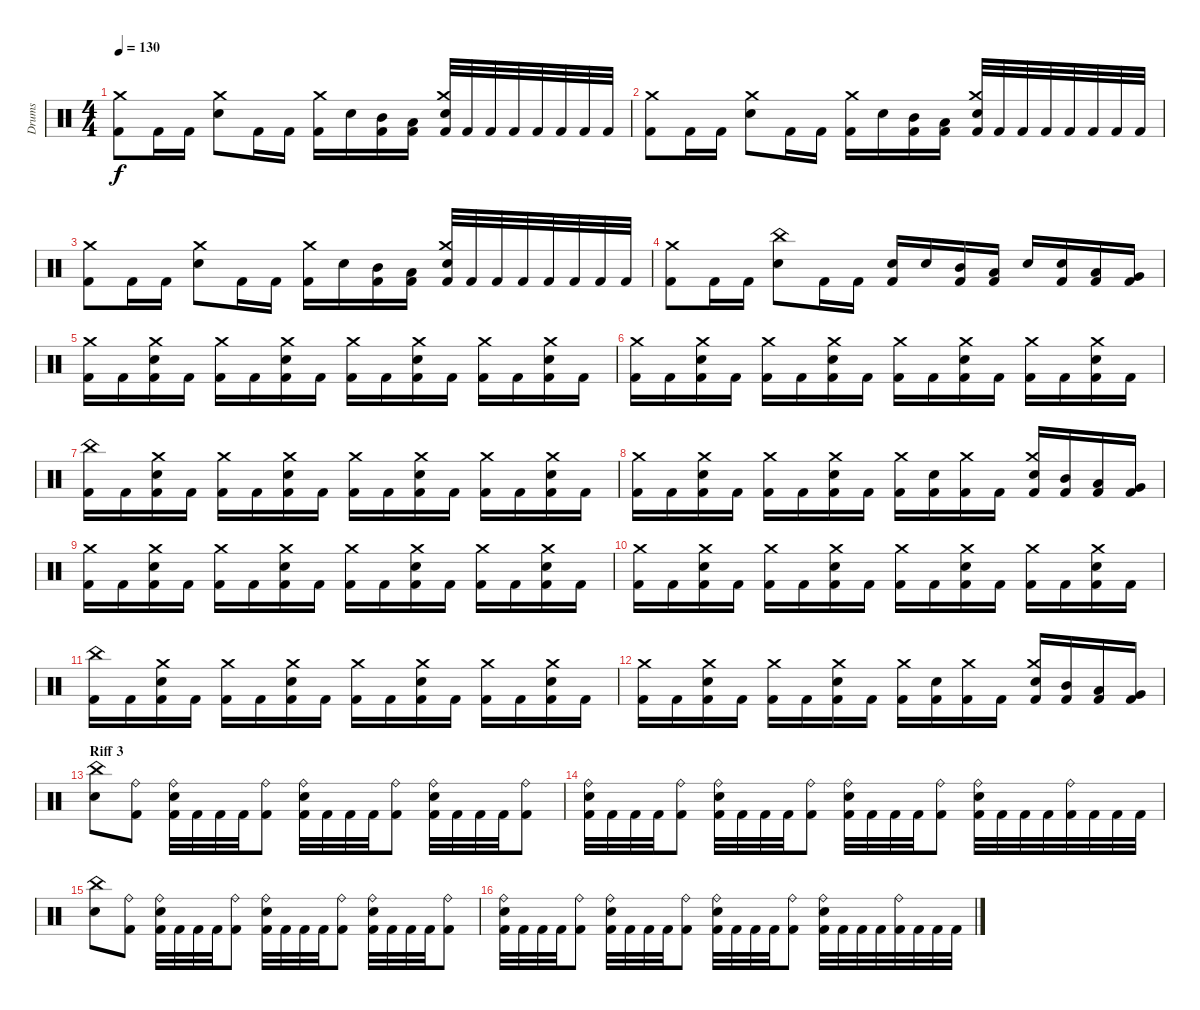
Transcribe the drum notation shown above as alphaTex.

\track ("Drums" "Drums") {instrument percussion}
\staff {score}
\articulation defaults
\ts (4 4)
\tempo 130
\clef neutral
\ks c
("Kick (hit) 2" "Crash medium (hit)").8{dy f} "Kick (hit) 2".16 "Kick (hit) 2".16 ("Snare (hit) 2" "Crash medium (hit)").8 "Kick (hit) 2".16 "Kick (hit) 2".16 ("Kick (hit) 2" "Crash medium (hit)").16 "Snare (hit) 2".16 ("Kick (hit) 2" "Mid Tom (hit)").16 ("Kick (hit) 2" "Low Tom (hit)").16 ("Kick (hit) 2" "Snare (hit) 2" "Crash medium (hit)").32 "Kick (hit) 2".32 "Kick (hit) 2".32 "Kick (hit) 2".32 "Kick (hit) 2".32 "Kick (hit) 2".32 "Kick (hit) 2".32 "Kick (hit) 2".32 |
("Kick (hit) 2" "Crash medium (hit)").8 "Kick (hit) 2".16 "Kick (hit) 2".16 ("Snare (hit) 2" "Crash medium (hit)").8 "Kick (hit) 2".16 "Kick (hit) 2".16 ("Kick (hit) 2" "Crash medium (hit)").16 "Snare (hit) 2".16 ("Kick (hit) 2" "Mid Tom (hit)").16 ("Kick (hit) 2" "Low Tom (hit)").16 ("Kick (hit) 2" "Snare (hit) 2" "Crash medium (hit)").32 "Kick (hit) 2".32 "Kick (hit) 2".32 "Kick (hit) 2".32 "Kick (hit) 2".32 "Kick (hit) 2".32 "Kick (hit) 2".32 "Kick (hit) 2".32 |
("Kick (hit) 2" "Crash medium (hit)").8 "Kick (hit) 2".16 "Kick (hit) 2".16 ("Snare (hit) 2" "Crash medium (hit)").8 "Kick (hit) 2".16 "Kick (hit) 2".16 ("Kick (hit) 2" "Crash medium (hit)").16 "Snare (hit) 2".16 ("Kick (hit) 2" "Mid Tom (hit)").16 ("Kick (hit) 2" "Low Tom (hit)").16 ("Kick (hit) 2" "Snare (hit) 2" "Crash medium (hit)").32 "Kick (hit) 2".32 "Kick (hit) 2".32 "Kick (hit) 2".32 "Kick (hit) 2".32 "Kick (hit) 2".32 "Kick (hit) 2".32 "Kick (hit) 2".32 |
("Kick (hit) 2" "Crash medium (hit)").8 "Kick (hit) 2".16 "Kick (hit) 2".16 ("Snare (hit) 2" "China (hit)").8 "Kick (hit) 2".16 "Kick (hit) 2".16 ("Kick (hit) 2" "Snare (hit) 2").16 "Snare (hit) 2".16 ("Kick (hit) 2" "Mid Tom (hit)").16 ("Kick (hit) 2" "Low Tom (hit)").16 "Snare (hit) 2".16 ("Kick (hit) 2" "Snare (hit) 2").16 ("Kick (hit) 2" "Low Tom (hit)").16 ("Kick (hit) 2" "Very Low Tom (hit)").16 |
("Kick (hit) 2" "Crash medium (hit)").16 "Kick (hit) 2".16 ("Kick (hit) 2" "Snare (hit) 2" "Crash medium (hit)").16 "Kick (hit) 2".16 ("Kick (hit) 2" "Crash medium (hit)").16 "Kick (hit) 2".16 ("Kick (hit) 2" "Snare (hit) 2" "Crash medium (hit)").16 "Kick (hit) 2".16 ("Kick (hit) 2" "Crash medium (hit)").16 "Kick (hit) 2".16 ("Kick (hit) 2" "Snare (hit) 2" "Crash medium (hit)").16 "Kick (hit) 2".16 ("Kick (hit) 2" "Crash medium (hit)").16 "Kick (hit) 2".16 ("Kick (hit) 2" "Snare (hit) 2" "Crash medium (hit)").16 "Kick (hit) 2".16 |
("Kick (hit) 2" "Crash medium (hit)").16 "Kick (hit) 2".16 ("Kick (hit) 2" "Snare (hit) 2" "Crash medium (hit)").16 "Kick (hit) 2".16 ("Kick (hit) 2" "Crash medium (hit)").16 "Kick (hit) 2".16 ("Kick (hit) 2" "Snare (hit) 2" "Crash medium (hit)").16 "Kick (hit) 2".16 ("Kick (hit) 2" "Crash medium (hit)").16 "Kick (hit) 2".16 ("Kick (hit) 2" "Snare (hit) 2" "Crash medium (hit)").16 "Kick (hit) 2".16 ("Kick (hit) 2" "Crash medium (hit)").16 "Kick (hit) 2".16 ("Kick (hit) 2" "Snare (hit) 2" "Crash medium (hit)").16 "Kick (hit) 2".16 |
("Kick (hit) 2" "China (hit)").16 "Kick (hit) 2".16 ("Kick (hit) 2" "Snare (hit) 2" "Crash medium (hit)").16 "Kick (hit) 2".16 ("Kick (hit) 2" "Crash medium (hit)").16 "Kick (hit) 2".16 ("Kick (hit) 2" "Snare (hit) 2" "Crash medium (hit)").16 "Kick (hit) 2".16 ("Kick (hit) 2" "Crash medium (hit)").16 "Kick (hit) 2".16 ("Kick (hit) 2" "Snare (hit) 2" "Crash medium (hit)").16 "Kick (hit) 2".16 ("Kick (hit) 2" "Crash medium (hit)").16 "Kick (hit) 2".16 ("Kick (hit) 2" "Snare (hit) 2" "Crash medium (hit)").16 "Kick (hit) 2".16 |
("Kick (hit) 2" "Crash medium (hit)").16 "Kick (hit) 2".16 ("Kick (hit) 2" "Snare (hit) 2" "Crash medium (hit)").16 "Kick (hit) 2".16 ("Kick (hit) 2" "Crash medium (hit)").16 "Kick (hit) 2".16 ("Kick (hit) 2" "Snare (hit) 2" "Crash medium (hit)").16 "Kick (hit) 2".16 ("Kick (hit) 2" "Crash medium (hit)").16 ("Kick (hit) 2" "Snare (hit) 2").16 ("Kick (hit) 2" "Crash medium (hit)").16 "Kick (hit) 2".16 ("Kick (hit) 2" "Snare (hit) 2" "Crash medium (hit)").16 ("Kick (hit) 2" "Mid Tom (hit)").16 ("Kick (hit) 2" "Low Tom (hit)").16 ("Kick (hit) 2" "Very Low Tom (hit)").16 |
("Kick (hit) 2" "Crash medium (hit)").16 "Kick (hit) 2".16 ("Kick (hit) 2" "Snare (hit) 2" "Crash medium (hit)").16 "Kick (hit) 2".16 ("Kick (hit) 2" "Crash medium (hit)").16 "Kick (hit) 2".16 ("Kick (hit) 2" "Snare (hit) 2" "Crash medium (hit)").16 "Kick (hit) 2".16 ("Kick (hit) 2" "Crash medium (hit)").16 "Kick (hit) 2".16 ("Kick (hit) 2" "Snare (hit) 2" "Crash medium (hit)").16 "Kick (hit) 2".16 ("Kick (hit) 2" "Crash medium (hit)").16 "Kick (hit) 2".16 ("Kick (hit) 2" "Snare (hit) 2" "Crash medium (hit)").16 "Kick (hit) 2".16 |
("Kick (hit) 2" "Crash medium (hit)").16 "Kick (hit) 2".16 ("Kick (hit) 2" "Snare (hit) 2" "Crash medium (hit)").16 "Kick (hit) 2".16 ("Kick (hit) 2" "Crash medium (hit)").16 "Kick (hit) 2".16 ("Kick (hit) 2" "Snare (hit) 2" "Crash medium (hit)").16 "Kick (hit) 2".16 ("Kick (hit) 2" "Crash medium (hit)").16 "Kick (hit) 2".16 ("Kick (hit) 2" "Snare (hit) 2" "Crash medium (hit)").16 "Kick (hit) 2".16 ("Kick (hit) 2" "Crash medium (hit)").16 "Kick (hit) 2".16 ("Kick (hit) 2" "Snare (hit) 2" "Crash medium (hit)").16 "Kick (hit) 2".16 |
("Kick (hit) 2" "China (hit)").16 "Kick (hit) 2".16 ("Kick (hit) 2" "Snare (hit) 2" "Crash medium (hit)").16 "Kick (hit) 2".16 ("Kick (hit) 2" "Crash medium (hit)").16 "Kick (hit) 2".16 ("Kick (hit) 2" "Snare (hit) 2" "Crash medium (hit)").16 "Kick (hit) 2".16 ("Kick (hit) 2" "Crash medium (hit)").16 "Kick (hit) 2".16 ("Kick (hit) 2" "Snare (hit) 2" "Crash medium (hit)").16 "Kick (hit) 2".16 ("Kick (hit) 2" "Crash medium (hit)").16 "Kick (hit) 2".16 ("Kick (hit) 2" "Snare (hit) 2" "Crash medium (hit)").16 "Kick (hit) 2".16 |
("Kick (hit) 2" "Crash medium (hit)").16 "Kick (hit) 2".16 ("Kick (hit) 2" "Snare (hit) 2" "Crash medium (hit)").16 "Kick (hit) 2".16 ("Kick (hit) 2" "Crash medium (hit)").16 "Kick (hit) 2".16 ("Kick (hit) 2" "Snare (hit) 2" "Crash medium (hit)").16 "Kick (hit) 2".16 ("Kick (hit) 2" "Crash medium (hit)").16 ("Kick (hit) 2" "Snare (hit) 2").16 ("Kick (hit) 2" "Crash medium (hit)").16 "Kick (hit) 2".16 ("Kick (hit) 2" "Snare (hit) 2" "Crash medium (hit)").16 ("Kick (hit) 2" "Mid Tom (hit)").16 ("Kick (hit) 2" "Low Tom (hit)").16 ("Kick (hit) 2" "Very Low Tom (hit)").16 |
\section ("" "Riff 3")
("Snare (hit) 2" "China (hit)").8 ("Kick (hit) 2" "Ride (bell)").8 ("Kick (hit) 2" "Snare (hit) 2" "Ride (bell)").32 "Kick (hit) 2".32 "Kick (hit) 2".32 "Kick (hit) 2".32 ("Kick (hit) 2" "Ride (bell)").8 ("Kick (hit) 2" "Snare (hit) 2" "Ride (bell)").32 "Kick (hit) 2".32 "Kick (hit) 2".32 "Kick (hit) 2".32 ("Kick (hit) 2" "Ride (bell)").8 ("Kick (hit) 2" "Snare (hit) 2" "Ride (bell)").32 "Kick (hit) 2".32 "Kick (hit) 2".32 "Kick (hit) 2".32 ("Kick (hit) 2" "Ride (bell)").8 |
("Kick (hit) 2" "Snare (hit) 2" "Ride (bell)").32 "Kick (hit) 2".32 "Kick (hit) 2".32 "Kick (hit) 2".32 ("Kick (hit) 2" "Ride (bell)").8 ("Kick (hit) 2" "Snare (hit) 2" "Ride (bell)").32 "Kick (hit) 2".32 "Kick (hit) 2".32 "Kick (hit) 2".32 ("Kick (hit) 2" "Ride (bell)").8 ("Kick (hit) 2" "Snare (hit) 2" "Ride (bell)").32 "Kick (hit) 2".32 "Kick (hit) 2".32 "Kick (hit) 2".32 ("Kick (hit) 2" "Ride (bell)").8 ("Kick (hit) 2" "Snare (hit) 2" "Ride (bell)").32 "Kick (hit) 2".32 "Kick (hit) 2".32 "Kick (hit) 2".32 ("Kick (hit) 2" "Ride (bell)").32 "Kick (hit) 2".32 "Kick (hit) 2".32 "Kick (hit) 2".32 |
("Snare (hit) 2" "China (hit)").8 ("Kick (hit) 2" "Ride (bell)").8 ("Kick (hit) 2" "Snare (hit) 2" "Ride (bell)").32 "Kick (hit) 2".32 "Kick (hit) 2".32 "Kick (hit) 2".32 ("Kick (hit) 2" "Ride (bell)").8 ("Kick (hit) 2" "Snare (hit) 2" "Ride (bell)").32 "Kick (hit) 2".32 "Kick (hit) 2".32 "Kick (hit) 2".32 ("Kick (hit) 2" "Ride (bell)").8 ("Kick (hit) 2" "Snare (hit) 2" "Ride (bell)").32 "Kick (hit) 2".32 "Kick (hit) 2".32 "Kick (hit) 2".32 ("Kick (hit) 2" "Ride (bell)").8 |
("Kick (hit) 2" "Snare (hit) 2" "Ride (bell)").32 "Kick (hit) 2".32 "Kick (hit) 2".32 "Kick (hit) 2".32 ("Kick (hit) 2" "Ride (bell)").8 ("Kick (hit) 2" "Snare (hit) 2" "Ride (bell)").32 "Kick (hit) 2".32 "Kick (hit) 2".32 "Kick (hit) 2".32 ("Kick (hit) 2" "Ride (bell)").8 ("Kick (hit) 2" "Snare (hit) 2" "Ride (bell)").32 "Kick (hit) 2".32 "Kick (hit) 2".32 "Kick (hit) 2".32 ("Kick (hit) 2" "Ride (bell)").8 ("Kick (hit) 2" "Snare (hit) 2" "Ride (bell)").32 "Kick (hit) 2".32 "Kick (hit) 2".32 "Kick (hit) 2".32 ("Kick (hit) 2" "Ride (bell)").32 "Kick (hit) 2".32 "Kick (hit) 2".32 "Kick (hit) 2".32
